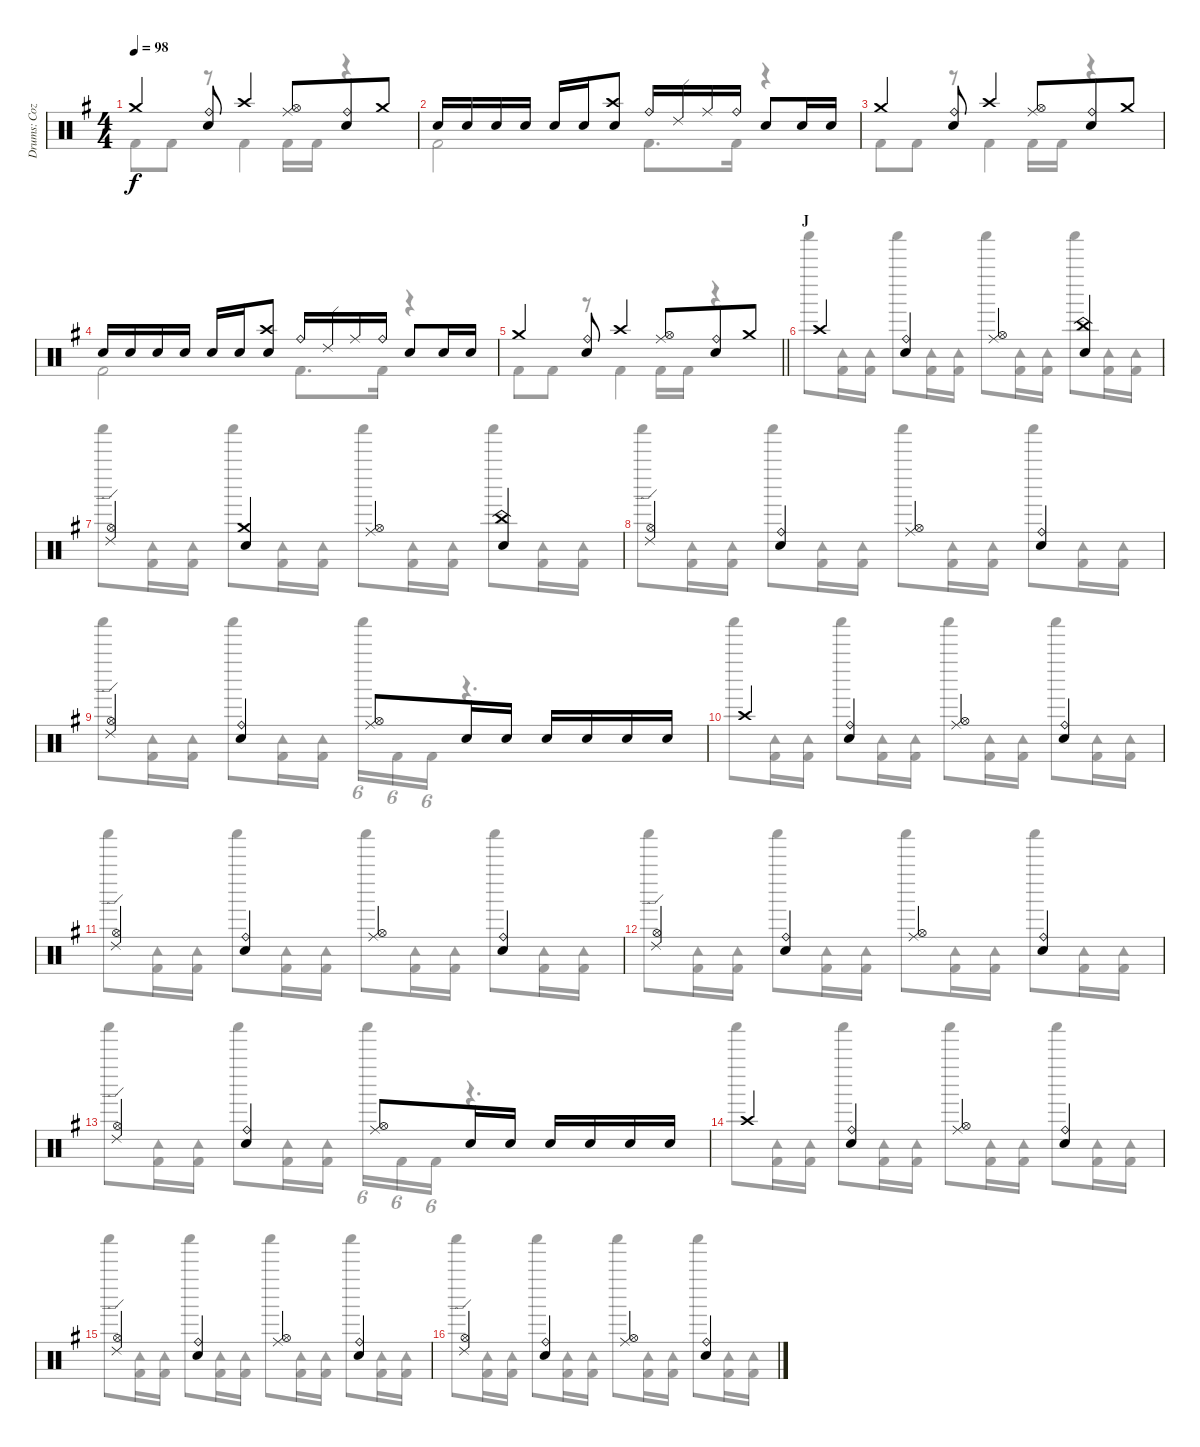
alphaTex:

\track ("Drums: Cozy" "Drums: Coz") {instrument percussion}
\staff {score}
\articulation defaults
\voice
\ts (4 4)
\tempo 98
\clef neutral
\ks g "Crash medium (hit)".4{dy f}
("Ride (bell)" "Snare (hit) 2").8 "Crash high (hit)".4 ("Ride (middle)" "Hi-Hat (open)").8{beam merge} ("Ride (bell)" "Snare (hit) 2").8 "Crash medium (hit)".8 |
"Snare (hit) 2".16 "Snare (hit) 2".16 "Snare (hit) 2".16 "Snare (hit) 2".16 "Snare (hit) 2".16 "Snare (hit) 2".16 ("Crash high (hit)" "Snare (hit) 2").8 "Ride (bell)".16 "Ride (edge) 2".16 "Ride (middle)".16 "Ride (bell)".16 "Snare (hit) 2".8 "Snare (hit) 2".16 "Snare (hit) 2".16 |
"Crash medium (hit)".4 ("Ride (bell)" "Snare (hit) 2").8 "Crash high (hit)".4 ("Ride (middle)" "Hi-Hat (open)").8{beam merge} ("Ride (bell)" "Snare (hit) 2").8 "Crash medium (hit)".8 |
"Snare (hit) 2".16 "Snare (hit) 2".16 "Snare (hit) 2".16 "Snare (hit) 2".16 "Snare (hit) 2".16 "Snare (hit) 2".16 ("Crash high (hit)" "Snare (hit) 2").8 "Ride (bell)".16 "Ride (edge) 2".16 "Ride (middle)".16 "Ride (bell)".16 "Snare (hit) 2".8 "Snare (hit) 2".16 "Snare (hit) 2".16 |
\barLineRight lightlight "Crash medium (hit)".4
("Ride (bell)" "Snare (hit) 2").8 "Crash high (hit)".4 ("Ride (middle)" "Hi-Hat (open)").8{beam merge} ("Ride (bell)" "Snare (hit) 2").8 "Crash medium (hit)".8 |
\section ("" "J")
"Crash high (hit)".4 ("Ride (bell)" "Snare (hit) 2").4 ("Ride (middle)" "Hi-Hat (open)").4 ("China (hit)" "Snare (hit) 2").4 |
("Ride (edge) 2" "Hi-Hat (open)").4 ("Crash medium (hit)" "Snare (hit) 2").4 ("Ride (middle)" "Hi-Hat (open)").4 ("China (hit)" "Snare (hit) 2").4 |
("Ride (edge) 2" "Hi-Hat (open)").4 ("Ride (bell)" "Snare (hit) 2").4 ("Ride (middle)" "Hi-Hat (open)").4 ("Ride (bell)" "Snare (hit) 2").4 |
("Ride (edge) 2" "Hi-Hat (open)").4 ("Ride (bell)" "Snare (hit) 2").4 ("Ride (middle)" "Hi-Hat (open)").8 "Snare (hit) 2".16{beam merge} "Snare (hit) 2".16 "Snare (hit) 2".16 "Snare (hit) 2".16{beam merge} "Snare (hit) 2".16 "Snare (hit) 2".16 |
"Crash high (hit)".4 ("Ride (bell)" "Snare (hit) 2").4 ("Ride (middle)" "Hi-Hat (open)").4 ("Ride (bell)" "Snare (hit) 2").4 |
("Ride (edge) 2" "Hi-Hat (open)").4 ("Ride (bell)" "Snare (hit) 2").4 ("Ride (middle)" "Hi-Hat (open)").4 ("Ride (bell)" "Snare (hit) 2").4 |
("Ride (edge) 2" "Hi-Hat (open)").4 ("Ride (bell)" "Snare (hit) 2").4 ("Ride (middle)" "Hi-Hat (open)").4 ("Ride (bell)" "Snare (hit) 2").4 |
("Ride (edge) 2" "Hi-Hat (open)").4 ("Ride (bell)" "Snare (hit) 2").4 ("Ride (middle)" "Hi-Hat (open)").8 "Snare (hit) 2".16{beam merge} "Snare (hit) 2".16 "Snare (hit) 2".16 "Snare (hit) 2".16{beam merge} "Snare (hit) 2".16 "Snare (hit) 2".16 |
"Crash high (hit)".4 ("Ride (bell)" "Snare (hit) 2").4 ("Ride (middle)" "Hi-Hat (open)").4 ("Ride (bell)" "Snare (hit) 2").4 |
("Ride (edge) 2" "Hi-Hat (open)").4 ("Ride (bell)" "Snare (hit) 2").4 ("Ride (middle)" "Hi-Hat (open)").4 ("Ride (bell)" "Snare (hit) 2").4 |
("Ride (edge) 2" "Hi-Hat (open)").4 ("Ride (bell)" "Snare (hit) 2").4 ("Ride (middle)" "Hi-Hat (open)").4 ("Ride (bell)" "Snare (hit) 2").4
\voice
\clef neutral
\ottava regular
\simile none
\ks g "Kick (hit) 2".8{dy f} "Kick (hit) 2".8
r.8 "Kick (hit) 2".4 "Kick (hit) 2".16 "Kick (hit) 2".16 r.4 |
"Kick (hit) 2".2 "Kick (hit) 2".8{d} "Kick (hit) 2".16 r.4 |
"Kick (hit) 2".8 "Kick (hit) 2".8 r.8 "Kick (hit) 2".4 "Kick (hit) 2".16 "Kick (hit) 2".16 r.4 |
"Kick (hit) 2".2 "Kick (hit) 2".8{d} "Kick (hit) 2".16 r.4 |
\barLineRight lightlight "Kick (hit) 2".8 "Kick (hit) 2".8
r.8 "Kick (hit) 2".4 "Kick (hit) 2".16 "Kick (hit) 2".16 r.4 |
"Shaker (hit)".8 ("Tambourine (hit)" "Kick (hit) 2").16 ("Tambourine (hit)" "Kick (hit) 2").16 "Shaker (hit)".8 ("Tambourine (hit)" "Kick (hit) 2").16 ("Tambourine (hit)" "Kick (hit) 2").16 "Shaker (hit)".8 ("Tambourine (hit)" "Kick (hit) 2").16 ("Tambourine (hit)" "Kick (hit) 2").16 "Shaker (hit)".8 ("Tambourine (hit)" "Kick (hit) 2").16 ("Tambourine (hit)" "Kick (hit) 2").16 |
"Shaker (hit)".8 ("Tambourine (hit)" "Kick (hit) 2").16 ("Tambourine (hit)" "Kick (hit) 2").16 "Shaker (hit)".8 ("Tambourine (hit)" "Kick (hit) 2").16 ("Tambourine (hit)" "Kick (hit) 2").16 "Shaker (hit)".8 ("Tambourine (hit)" "Kick (hit) 2").16 ("Tambourine (hit)" "Kick (hit) 2").16 "Shaker (hit)".8 ("Tambourine (hit)" "Kick (hit) 2").16 ("Tambourine (hit)" "Kick (hit) 2").16 |
"Shaker (hit)".8 ("Tambourine (hit)" "Kick (hit) 2").16 ("Tambourine (hit)" "Kick (hit) 2").16 "Shaker (hit)".8 ("Tambourine (hit)" "Kick (hit) 2").16 ("Tambourine (hit)" "Kick (hit) 2").16 "Shaker (hit)".8 ("Tambourine (hit)" "Kick (hit) 2").16 ("Tambourine (hit)" "Kick (hit) 2").16 "Shaker (hit)".8 ("Tambourine (hit)" "Kick (hit) 2").16 ("Tambourine (hit)" "Kick (hit) 2").16 |
"Shaker (hit)".8 ("Tambourine (hit)" "Kick (hit) 2").16 ("Tambourine (hit)" "Kick (hit) 2").16 "Shaker (hit)".8 ("Tambourine (hit)" "Kick (hit) 2").16 ("Tambourine (hit)" "Kick (hit) 2").16 "Shaker (hit)".16{tu (6 4)} "Kick (hit) 2".16{tu (6 4)} "Kick (hit) 2".16{tu (6 4)} r.4{d} |
"Shaker (hit)".8 ("Tambourine (hit)" "Kick (hit) 2").16 ("Tambourine (hit)" "Kick (hit) 2").16 "Shaker (hit)".8 ("Tambourine (hit)" "Kick (hit) 2").16 ("Tambourine (hit)" "Kick (hit) 2").16 "Shaker (hit)".8 ("Tambourine (hit)" "Kick (hit) 2").16 ("Tambourine (hit)" "Kick (hit) 2").16 "Shaker (hit)".8 ("Tambourine (hit)" "Kick (hit) 2").16 ("Tambourine (hit)" "Kick (hit) 2").16 |
"Shaker (hit)".8 ("Tambourine (hit)" "Kick (hit) 2").16 ("Tambourine (hit)" "Kick (hit) 2").16 "Shaker (hit)".8 ("Tambourine (hit)" "Kick (hit) 2").16 ("Tambourine (hit)" "Kick (hit) 2").16 "Shaker (hit)".8 ("Tambourine (hit)" "Kick (hit) 2").16 ("Tambourine (hit)" "Kick (hit) 2").16 "Shaker (hit)".8 ("Tambourine (hit)" "Kick (hit) 2").16 ("Tambourine (hit)" "Kick (hit) 2").16 |
"Shaker (hit)".8 ("Tambourine (hit)" "Kick (hit) 2").16 ("Tambourine (hit)" "Kick (hit) 2").16 "Shaker (hit)".8 ("Tambourine (hit)" "Kick (hit) 2").16 ("Tambourine (hit)" "Kick (hit) 2").16 "Shaker (hit)".8 ("Tambourine (hit)" "Kick (hit) 2").16 ("Tambourine (hit)" "Kick (hit) 2").16 "Shaker (hit)".8 ("Tambourine (hit)" "Kick (hit) 2").16 ("Tambourine (hit)" "Kick (hit) 2").16 |
"Shaker (hit)".8 ("Tambourine (hit)" "Kick (hit) 2").16 ("Tambourine (hit)" "Kick (hit) 2").16 "Shaker (hit)".8 ("Tambourine (hit)" "Kick (hit) 2").16 ("Tambourine (hit)" "Kick (hit) 2").16 "Shaker (hit)".16{tu (6 4)} "Kick (hit) 2".16{tu (6 4)} "Kick (hit) 2".16{tu (6 4)} r.4{d} |
"Shaker (hit)".8 ("Tambourine (hit)" "Kick (hit) 2").16 ("Tambourine (hit)" "Kick (hit) 2").16 "Shaker (hit)".8 ("Tambourine (hit)" "Kick (hit) 2").16 ("Tambourine (hit)" "Kick (hit) 2").16 "Shaker (hit)".8 ("Tambourine (hit)" "Kick (hit) 2").16 ("Tambourine (hit)" "Kick (hit) 2").16 "Shaker (hit)".8 ("Tambourine (hit)" "Kick (hit) 2").16 ("Tambourine (hit)" "Kick (hit) 2").16 |
"Shaker (hit)".8 ("Tambourine (hit)" "Kick (hit) 2").16 ("Tambourine (hit)" "Kick (hit) 2").16 "Shaker (hit)".8 ("Tambourine (hit)" "Kick (hit) 2").16 ("Tambourine (hit)" "Kick (hit) 2").16 "Shaker (hit)".8 ("Tambourine (hit)" "Kick (hit) 2").16 ("Tambourine (hit)" "Kick (hit) 2").16 "Shaker (hit)".8 ("Tambourine (hit)" "Kick (hit) 2").16 ("Tambourine (hit)" "Kick (hit) 2").16 |
"Shaker (hit)".8 ("Tambourine (hit)" "Kick (hit) 2").16 ("Tambourine (hit)" "Kick (hit) 2").16 "Shaker (hit)".8 ("Tambourine (hit)" "Kick (hit) 2").16 ("Tambourine (hit)" "Kick (hit) 2").16 "Shaker (hit)".8 ("Tambourine (hit)" "Kick (hit) 2").16 ("Tambourine (hit)" "Kick (hit) 2").16 "Shaker (hit)".8 ("Tambourine (hit)" "Kick (hit) 2").16 ("Tambourine (hit)" "Kick (hit) 2").16
